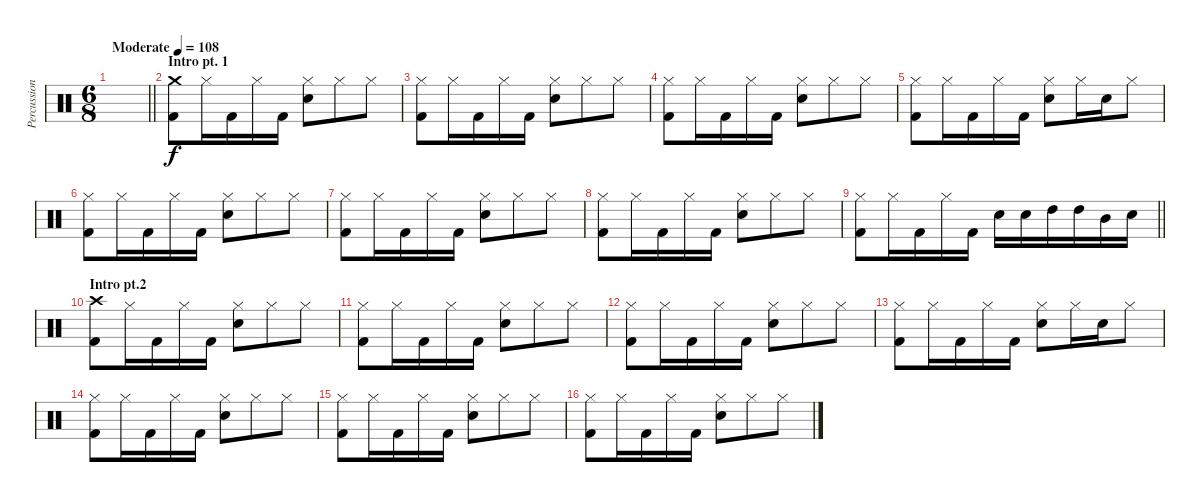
\track ("Percussions" "Percussion") {instrument percussion}
\staff {score}
\articulation defaults
\ts (6 8)
\tempo (108 "Moderate")
\clef neutral
\barLineRight lightlight
\ks c
|
\section ("" "Intro pt. 1")
("Crash medium (hit)" "Kick (hit) 2").8 "Hi-Hat (closed)".16 "Kick (hit) 2".16 "Hi-Hat (closed)".16 "Kick (hit) 2".16 ("Hi-Hat (closed)" "Electric Snare (hit)").8 "Hi-Hat (closed)".8 "Hi-Hat (closed)".8 |
("Hi-Hat (closed)" "Kick (hit) 2").8 "Hi-Hat (closed)".16 "Kick (hit) 2".16 "Hi-Hat (closed)".16 "Kick (hit) 2".16 ("Hi-Hat (closed)" "Electric Snare (hit)").8 "Hi-Hat (closed)".8 "Hi-Hat (closed)".8 |
("Hi-Hat (closed)" "Kick (hit) 2").8 "Hi-Hat (closed)".16 "Kick (hit) 2".16 "Hi-Hat (closed)".16 "Kick (hit) 2".16 ("Hi-Hat (closed)" "Electric Snare (hit)").8 "Hi-Hat (closed)".8 "Hi-Hat (closed)".8 |
("Hi-Hat (closed)" "Kick (hit) 2").8 "Hi-Hat (closed)".16 "Kick (hit) 2".16 "Hi-Hat (closed)".16 "Kick (hit) 2".16 ("Hi-Hat (closed)" "Electric Snare (hit)").8 "Hi-Hat (closed)".16 "Electric Snare (hit)".16 "Hi-Hat (closed)".8 |
("Hi-Hat (closed)" "Kick (hit) 2").8 "Hi-Hat (closed)".16 "Kick (hit) 2".16 "Hi-Hat (closed)".16 "Kick (hit) 2".16 ("Hi-Hat (closed)" "Electric Snare (hit)").8 "Hi-Hat (closed)".8 "Hi-Hat (closed)".8 |
("Hi-Hat (closed)" "Kick (hit) 2").8 "Hi-Hat (closed)".16 "Kick (hit) 2".16 "Hi-Hat (closed)".16 "Kick (hit) 2".16 ("Hi-Hat (closed)" "Electric Snare (hit)").8 "Hi-Hat (closed)".8 "Hi-Hat (closed)".8 |
("Hi-Hat (closed)" "Kick (hit) 2").8 "Hi-Hat (closed)".16 "Kick (hit) 2".16 "Hi-Hat (closed)".16 "Kick (hit) 2".16 ("Hi-Hat (closed)" "Electric Snare (hit)").8 "Hi-Hat (closed)".8 "Hi-Hat (closed)".8 |
\barLineRight lightlight
("Hi-Hat (closed)" "Kick (hit) 2").8 "Hi-Hat (closed)".16 "Kick (hit) 2".16 "Hi-Hat (closed)".16 "Kick (hit) 2".16 "Electric Snare (hit)".16 "Electric Snare (hit)".16 "High Tom (hit)".16 "High Tom (hit)".16 "Mid Tom (hit)".16 "Electric Snare (hit)".16 |
\section ("" "Intro pt.2")
("Crash high (hit)" "Kick (hit) 2").8 "Hi-Hat (closed)".16 "Kick (hit) 2".16 "Hi-Hat (closed)".16 "Kick (hit) 2".16 ("Hi-Hat (closed)" "Electric Snare (hit)").8 "Hi-Hat (closed)".8 "Hi-Hat (closed)".8 |
("Hi-Hat (closed)" "Kick (hit) 2").8 "Hi-Hat (closed)".16 "Kick (hit) 2".16 "Hi-Hat (closed)".16 "Kick (hit) 2".16 ("Hi-Hat (closed)" "Electric Snare (hit)").8 "Hi-Hat (closed)".8 "Hi-Hat (closed)".8 |
("Hi-Hat (closed)" "Kick (hit) 2").8 "Hi-Hat (closed)".16 "Kick (hit) 2".16 "Hi-Hat (closed)".16 "Kick (hit) 2".16 ("Hi-Hat (closed)" "Electric Snare (hit)").8 "Hi-Hat (closed)".8 "Hi-Hat (closed)".8 |
("Hi-Hat (closed)" "Kick (hit) 2").8 "Hi-Hat (closed)".16 "Kick (hit) 2".16 "Hi-Hat (closed)".16 "Kick (hit) 2".16 ("Hi-Hat (closed)" "Electric Snare (hit)").8 "Hi-Hat (closed)".16 "Electric Snare (hit)".16 "Hi-Hat (closed)".8 |
("Hi-Hat (closed)" "Kick (hit) 2").8 "Hi-Hat (closed)".16 "Kick (hit) 2".16 "Hi-Hat (closed)".16 "Kick (hit) 2".16 ("Hi-Hat (closed)" "Electric Snare (hit)").8 "Hi-Hat (closed)".8 "Hi-Hat (closed)".8 |
("Hi-Hat (closed)" "Kick (hit) 2").8 "Hi-Hat (closed)".16 "Kick (hit) 2".16 "Hi-Hat (closed)".16 "Kick (hit) 2".16 ("Hi-Hat (closed)" "Electric Snare (hit)").8 "Hi-Hat (closed)".8 "Hi-Hat (closed)".8 |
("Hi-Hat (closed)" "Kick (hit) 2").8 "Hi-Hat (closed)".16 "Kick (hit) 2".16 "Hi-Hat (closed)".16 "Kick (hit) 2".16 ("Hi-Hat (closed)" "Electric Snare (hit)").8 "Hi-Hat (closed)".8 "Hi-Hat (closed)".8
